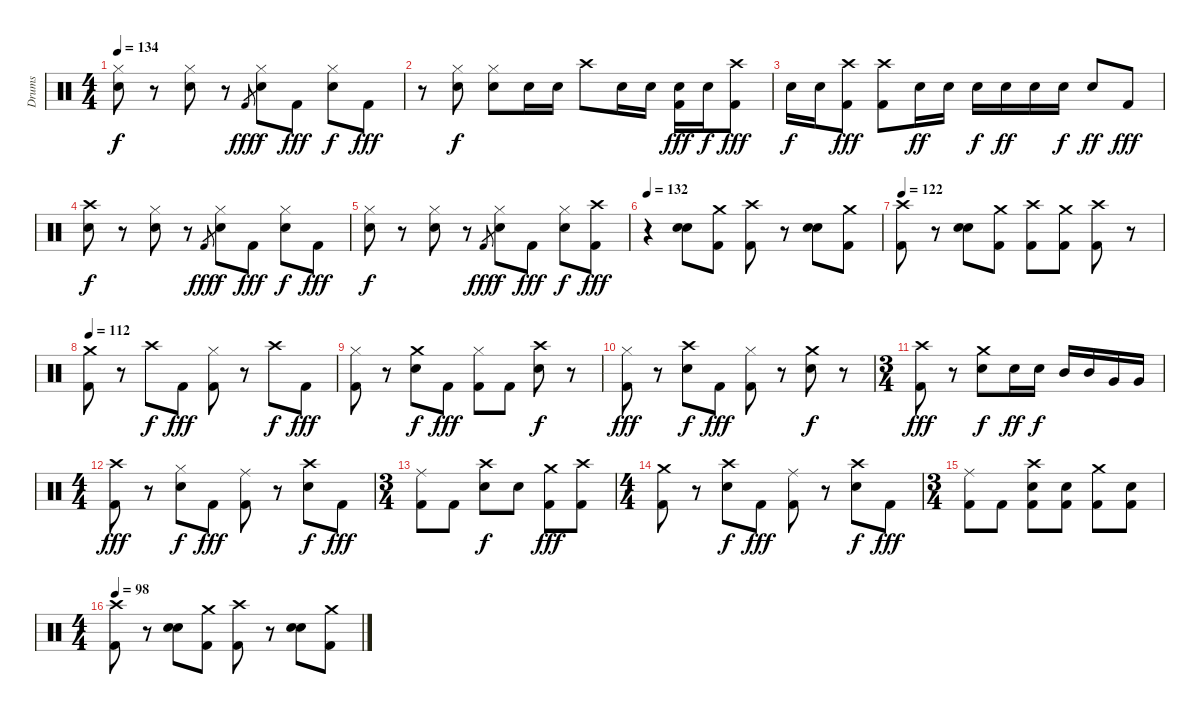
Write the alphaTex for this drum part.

\track ("Drums" "Drums") {instrument percussion}
\staff {score}
\articulation defaults
\ts (4 4)
\tempo 134
\clef neutral
\ks c
("Snare (hit) 2" "Hi-Hat (closed)").8{dy f} r.8 ("Snare (hit) 2" "Hi-Hat (closed)").8 r.8 "Kick (hit) 2".8{gr dy fff} ("Snare (hit) 2" "Hi-Hat (closed)").8{dy f} "Kick (hit) 2".8{dy fff} ("Snare (hit) 2" "Hi-Hat (closed)").8{dy f} "Kick (hit) 2".8{dy fff} |
r.8 ("Snare (hit) 2" "Hi-Hat (closed)").8{dy f} ("Snare (hit) 2" "Hi-Hat (closed)").8 "Snare (hit) 2".16 "Snare (hit) 2".16 "Crash high (hit)".8 "Snare (hit) 2".16 "Snare (hit) 2".16 ("Kick (hit) 2" "Snare (hit) 2").16{dy fff} "Snare (hit) 2".16{dy f} ("Kick (hit) 2" "Crash high (hit)").8{dy fff} |
"Snare (hit) 2".16{dy f} "Snare (hit) 2".16 ("Kick (hit) 2" "Crash high (hit)").8{dy fff} ("Kick (hit) 2" "Crash high (hit)").8 "Snare (hit) 2".16{dy ff} "Snare (hit) 2".16 "Snare (hit) 2".16{dy f} "Snare (hit) 2".16{dy ff} "Snare (hit) 2".16 "Snare (hit) 2".16{dy f} "Snare (hit) 2".8{dy ff} "Kick (hit) 2".8{dy fff} |
("Snare (hit) 2" "Crash high (hit)").8{dy f} r.8 ("Snare (hit) 2" "Hi-Hat (closed)").8 r.8 "Kick (hit) 2".8{gr dy fff} ("Snare (hit) 2" "Hi-Hat (closed)").8{dy f} "Kick (hit) 2".8{dy fff} ("Snare (hit) 2" "Hi-Hat (closed)").8{dy f} "Kick (hit) 2".8{dy fff} |
("Snare (hit) 2" "Hi-Hat (closed)").8{dy f} r.8 ("Snare (hit) 2" "Hi-Hat (closed)").8 r.8 "Kick (hit) 2".8{gr dy fff} ("Snare (hit) 2" "Hi-Hat (closed)").8{dy f} "Kick (hit) 2".8{dy fff} ("Snare (hit) 2" "Hi-Hat (closed)").8{dy f} ("Kick (hit) 2" "Crash high (hit)").8{dy fff} |
\tempo 132
r.4 ("Snare (hit) 2" "Snare (hit) 2").8 ("Kick (hit) 2" "Crash medium (hit)").8 ("Kick (hit) 2" "Crash high (hit)").8 r.8 ("Snare (hit) 2" "Snare (hit) 2").8 ("Kick (hit) 2" "Crash medium (hit)").8 |
\tempo 122
("Kick (hit) 2" "Crash high (hit)").8 r.8 ("Snare (hit) 2" "Snare (hit) 2").8 ("Kick (hit) 2" "Crash medium (hit)").8 ("Kick (hit) 2" "Crash high (hit)").8 ("Kick (hit) 2" "Crash medium (hit)").8 ("Kick (hit) 2" "Crash high (hit)").8 r.8 |
\tempo 112
("Kick (hit) 2" "Crash medium (hit)").8 r.8 "Crash high (hit)".8{dy f} "Kick (hit) 2".8{dy fff} ("Kick (hit) 2" "Hi-Hat (closed)").8 r.8 "Crash high (hit)".8{dy f} "Kick (hit) 2".8{dy fff} |
("Kick (hit) 2" "Hi-Hat (closed)").8 r.8 ("Snare (hit) 2" "Crash medium (hit)").8{dy f} "Kick (hit) 2".8{dy fff} ("Kick (hit) 2" "Hi-Hat (closed)").8 "Kick (hit) 2".8 ("Snare (hit) 2" "Crash high (hit)").8{dy f} r.8 |
("Kick (hit) 2" "Hi-Hat (closed)").8{dy fff} r.8 ("Snare (hit) 2" "Crash high (hit)").8{dy f} "Kick (hit) 2".8{dy fff} ("Kick (hit) 2" "Hi-Hat (closed)").8 r.8 ("Snare (hit) 2" "Crash medium (hit)").8{dy f} r.8 |
\ts (3 4)
("Kick (hit) 2" "Crash high (hit)").8{dy fff} r.8 ("Snare (hit) 2" "Crash medium (hit)").8{dy f} "Snare (hit) 2".16{dy ff} "Snare (hit) 2".16{dy f} "Mid Tom (hit)".16 "Mid Tom (hit)".16 "Very Low Tom (hit)".16 "Very Low Tom (hit)".16 |
\ts (4 4)
("Kick (hit) 2" "Crash high (hit)").8{dy fff} r.8 ("Snare (hit) 2" "Hi-Hat (closed)").8{dy f} "Kick (hit) 2".8{dy fff} ("Kick (hit) 2" "Ride (middle)").8 r.8 ("Snare (hit) 2" "Crash high (hit)").8{dy f} "Kick (hit) 2".8{dy fff} |
\ts (3 4)
("Kick (hit) 2" "Ride (middle)").8 "Kick (hit) 2".8 ("Snare (hit) 2" "Crash high (hit)").8{dy f} "Snare (hit) 2".8 ("Kick (hit) 2" "Crash medium (hit)").8{dy fff} ("Kick (hit) 2" "Crash high (hit)").8 |
\ts (4 4)
("Kick (hit) 2" "Crash medium (hit)").8 r.8 ("Snare (hit) 2" "Crash high (hit)").8{dy f} "Kick (hit) 2".8{dy fff} ("Kick (hit) 2" "Ride (middle)").8 r.8 ("Snare (hit) 2" "Crash high (hit)").8{dy f} "Kick (hit) 2".8{dy fff} |
\ts (3 4)
("Kick (hit) 2" "Ride (middle)").8 "Kick (hit) 2".8 ("Kick (hit) 2" "Snare (hit) 2" "Crash high (hit)").8 ("Kick (hit) 2" "Snare (hit) 2").8 ("Kick (hit) 2" "Crash medium (hit)").8 ("Kick (hit) 2" "Snare (hit) 2").8 |
\ts (4 4)
\tempo 98
("Kick (hit) 2" "Crash high (hit)").8 r.8 ("Snare (hit) 2" "Snare (hit) 2").8 ("Kick (hit) 2" "Crash medium (hit)").8 ("Kick (hit) 2" "Crash high (hit)").8 r.8 ("Snare (hit) 2" "Snare (hit) 2").8 ("Kick (hit) 2" "Crash medium (hit)").8
